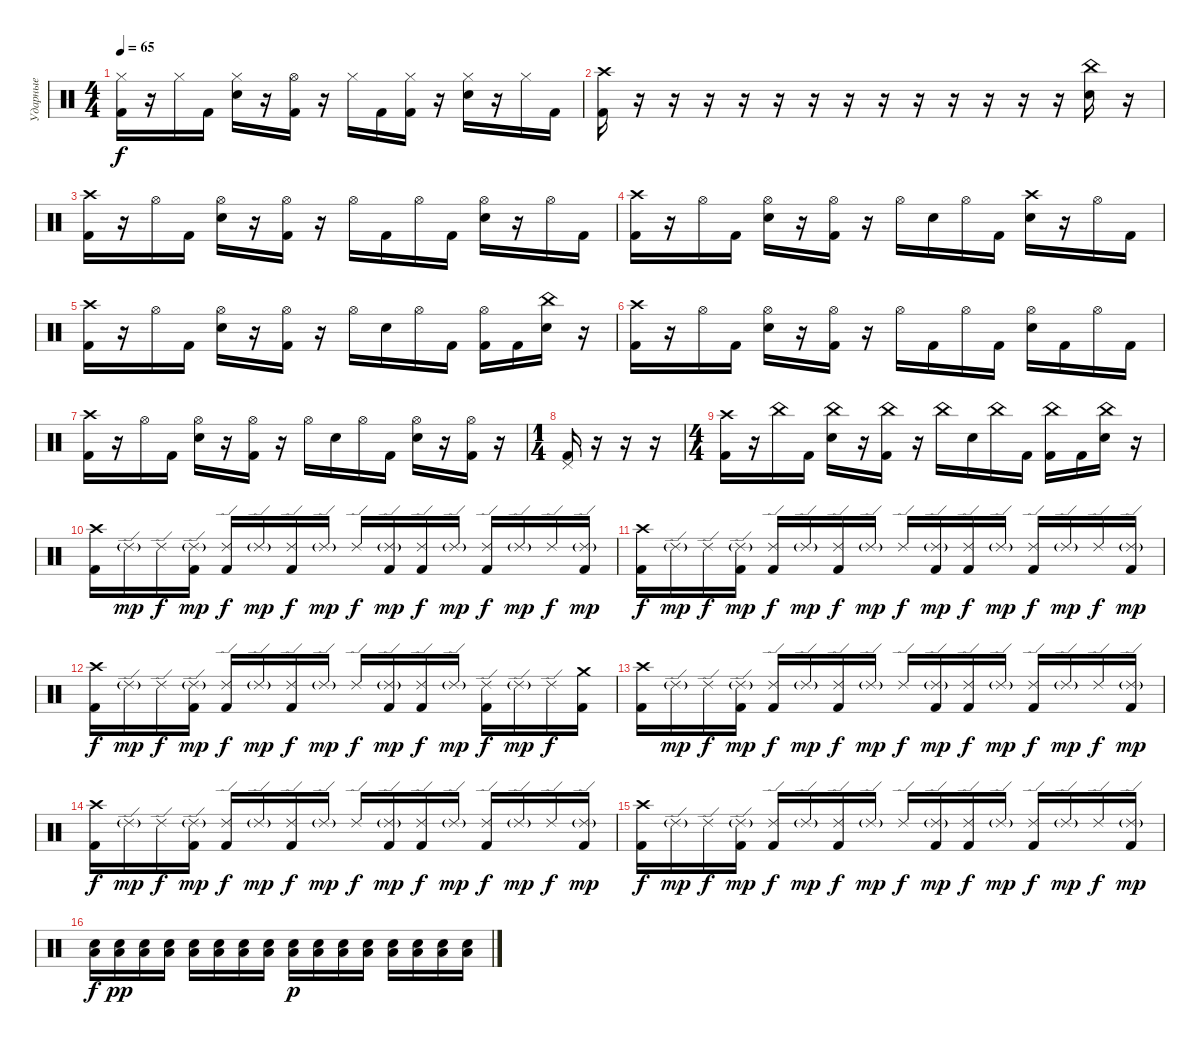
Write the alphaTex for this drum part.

\track ("Ударные" "Ударные") {instrument percussion}
\staff {score}
\articulation defaults
\ts (4 4)
\tempo 65
\clef neutral
\ks c
("Hi-Hat (closed)" "Kick (hit) 2").16{dy f} r.16 "Hi-Hat (closed)".16 "Kick (hit) 2".16 ("Hi-Hat (closed)" "Electric Snare (hit)").16 r.16 ("Hi-Hat (open)" "Kick (hit) 2").16 r.16 "Hi-Hat (closed)".16 "Kick (hit) 2".16 ("Hi-Hat (closed)" "Kick (hit) 2").16 r.16 ("Hi-Hat (closed)" "Electric Snare (hit)").16 r.16 "Hi-Hat (closed)".16 "Kick (hit) 2".16 |
("Crash high (hit)" "Kick (hit) 2").16 r.16 r.16 r.16 r.16 r.16 r.16 r.16 r.16 r.16 r.16 r.16 r.16 r.16 ("China (hit)" "Electric Snare (hit)").16 r.16 |
("Crash high (hit)" "Kick (hit) 2").16 r.16 "Hi-Hat (open)".16 "Kick (hit) 2".16 ("Hi-Hat (open)" "Electric Snare (hit)").16 r.16 ("Hi-Hat (open)" "Kick (hit) 2").16 r.16 "Hi-Hat (open)".16 "Kick (hit) 2".16 "Hi-Hat (open)".16 "Kick (hit) 2".16 ("Hi-Hat (open)" "Electric Snare (hit)").16 r.16 "Hi-Hat (open)".16 "Kick (hit) 2".16 |
("Crash high (hit)" "Kick (hit) 2").16 r.16 "Hi-Hat (open)".16 "Kick (hit) 2".16 ("Hi-Hat (open)" "Electric Snare (hit)").16 r.16 ("Hi-Hat (open)" "Kick (hit) 2").16 r.16 "Hi-Hat (open)".16 "Electric Snare (hit)".16 "Hi-Hat (open)".16 "Kick (hit) 2".16 ("Crash high (hit)" "Electric Snare (hit)").16 r.16 "Hi-Hat (open)".16 "Kick (hit) 2".16 |
("Crash high (hit)" "Kick (hit) 2").16 r.16 "Hi-Hat (open)".16 "Kick (hit) 2".16 ("Hi-Hat (open)" "Electric Snare (hit)").16 r.16 ("Hi-Hat (open)" "Kick (hit) 2").16 r.16 "Hi-Hat (open)".16 "Electric Snare (hit)".16 "Hi-Hat (open)".16 "Kick (hit) 2".16 ("Hi-Hat (open)" "Kick (hit) 2").16 "Kick (hit) 2".16 ("China (hit)" "Electric Snare (hit)").16 r.16 |
("Crash high (hit)" "Kick (hit) 2").16 r.16 "Hi-Hat (open)".16 "Kick (hit) 2".16 ("Hi-Hat (open)" "Electric Snare (hit)").16 r.16 ("Hi-Hat (open)" "Kick (hit) 2").16 r.16 "Hi-Hat (open)".16 "Kick (hit) 2".16 "Hi-Hat (open)".16 "Kick (hit) 2".16 ("Hi-Hat (open)" "Electric Snare (hit)").16 "Kick (hit) 2".16 "Hi-Hat (open)".16 "Kick (hit) 2".16 |
("Crash high (hit)" "Kick (hit) 2").16 r.16 "Hi-Hat (open)".16 "Kick (hit) 2".16 ("Hi-Hat (open)" "Electric Snare (hit)").16 r.16 ("Hi-Hat (open)" "Kick (hit) 2").16 r.16 "Hi-Hat (open)".16 "Electric Snare (hit)".16 "Hi-Hat (open)".16 "Kick (hit) 2".16 ("Hi-Hat (open)" "Electric Snare (hit)").16 r.16 ("Hi-Hat (open)" "Kick (hit) 2").16 r.16 |
\ts (1 4)
("Pedal Hi-Hat (hit)" "Kick (hit) 2").16 r.16 r.16 r.16 |
\ts (4 4)
("Crash high (hit)" "Kick (hit) 2").16 r.16 "China (hit)".16 "Kick (hit) 2".16 ("China (hit)" "Electric Snare (hit)").16 r.16 ("China (hit)" "Kick (hit) 2").16 r.16 "China (hit)".16 "Electric Snare (hit)".16 "China (hit)".16 "Kick (hit) 2".16 ("China (hit)" "Kick (hit) 2").16 "Kick (hit) 2".16 ("China (hit)" "Electric Snare (hit)").16 r.16 |
("Crash high (hit)" "Kick (hit) 2").16 "Ride (edge) 2"{g}.16{dy mp} "Ride (edge) 2".16{dy f} ("Ride (edge) 2"{g} "Kick (hit) 2").16{dy mp} ("Ride (edge) 2" "Kick (hit) 2").16{dy f} "Ride (edge) 2"{g}.16{dy mp} ("Ride (edge) 2" "Kick (hit) 2").16{dy f} "Ride (edge) 2"{g}.16{dy mp} "Ride (edge) 2".16{dy f} ("Ride (edge) 2"{g} "Kick (hit) 2").16{dy mp} ("Ride (edge) 2" "Kick (hit) 2").16{dy f} "Ride (edge) 2"{g}.16{dy mp} ("Ride (edge) 2" "Kick (hit) 2").16{dy f} "Ride (edge) 2"{g}.16{dy mp} "Ride (edge) 2".16{dy f} ("Ride (edge) 2"{g} "Kick (hit) 2").16{dy mp} |
("Crash high (hit)" "Kick (hit) 2").16{dy f} "Ride (edge) 2"{g}.16{dy mp} "Ride (edge) 2".16{dy f} ("Ride (edge) 2"{g} "Kick (hit) 2").16{dy mp} ("Ride (edge) 2" "Kick (hit) 2").16{dy f} "Ride (edge) 2"{g}.16{dy mp} ("Ride (edge) 2" "Kick (hit) 2").16{dy f} "Ride (edge) 2"{g}.16{dy mp} "Ride (edge) 2".16{dy f} ("Ride (edge) 2"{g} "Kick (hit) 2").16{dy mp} ("Ride (edge) 2" "Kick (hit) 2").16{dy f} "Ride (edge) 2"{g}.16{dy mp} ("Ride (edge) 2" "Kick (hit) 2").16{dy f} "Ride (edge) 2"{g}.16{dy mp} "Ride (edge) 2".16{dy f} ("Ride (edge) 2"{g} "Kick (hit) 2").16{dy mp} |
("Crash high (hit)" "Kick (hit) 2").16{dy f} "Ride (edge) 2"{g}.16{dy mp} "Ride (edge) 2".16{dy f} ("Ride (edge) 2"{g} "Kick (hit) 2").16{dy mp} ("Ride (edge) 2" "Kick (hit) 2").16{dy f} "Ride (edge) 2"{g}.16{dy mp} ("Ride (edge) 2" "Kick (hit) 2").16{dy f} "Ride (edge) 2"{g}.16{dy mp} "Ride (edge) 2".16{dy f} ("Ride (edge) 2"{g} "Kick (hit) 2").16{dy mp} ("Ride (edge) 2" "Kick (hit) 2").16{dy f} "Ride (edge) 2"{g}.16{dy mp} ("Ride (edge) 2" "Kick (hit) 2").16{dy f} "Ride (edge) 2"{g}.16{dy mp} "Ride (edge) 2".16{dy f} ("Crash medium (hit)" "Kick (hit) 2").16 |
("Crash high (hit)" "Kick (hit) 2").16 "Ride (edge) 2"{g}.16{dy mp} "Ride (edge) 2".16{dy f} ("Ride (edge) 2"{g} "Kick (hit) 2").16{dy mp} ("Ride (edge) 2" "Kick (hit) 2").16{dy f} "Ride (edge) 2"{g}.16{dy mp} ("Ride (edge) 2" "Kick (hit) 2").16{dy f} "Ride (edge) 2"{g}.16{dy mp} "Ride (edge) 2".16{dy f} ("Ride (edge) 2"{g} "Kick (hit) 2").16{dy mp} ("Ride (edge) 2" "Kick (hit) 2").16{dy f} "Ride (edge) 2"{g}.16{dy mp} ("Ride (edge) 2" "Kick (hit) 2").16{dy f} "Ride (edge) 2"{g}.16{dy mp} "Ride (edge) 2".16{dy f} ("Ride (edge) 2"{g} "Kick (hit) 2").16{dy mp} |
("Crash high (hit)" "Kick (hit) 2").16{dy f} "Ride (edge) 2"{g}.16{dy mp} "Ride (edge) 2".16{dy f} ("Ride (edge) 2"{g} "Kick (hit) 2").16{dy mp} ("Ride (edge) 2" "Kick (hit) 2").16{dy f} "Ride (edge) 2"{g}.16{dy mp} ("Ride (edge) 2" "Kick (hit) 2").16{dy f} "Ride (edge) 2"{g}.16{dy mp} "Ride (edge) 2".16{dy f} ("Ride (edge) 2"{g} "Kick (hit) 2").16{dy mp} ("Ride (edge) 2" "Kick (hit) 2").16{dy f} "Ride (edge) 2"{g}.16{dy mp} ("Ride (edge) 2" "Kick (hit) 2").16{dy f} "Ride (edge) 2"{g}.16{dy mp} "Ride (edge) 2".16{dy f} ("Ride (edge) 2"{g} "Kick (hit) 2").16{dy mp} |
("Crash high (hit)" "Kick (hit) 2").16{dy f} "Ride (edge) 2"{g}.16{dy mp} "Ride (edge) 2".16{dy f} ("Ride (edge) 2"{g} "Kick (hit) 2").16{dy mp} ("Ride (edge) 2" "Kick (hit) 2").16{dy f} "Ride (edge) 2"{g}.16{dy mp} ("Ride (edge) 2" "Kick (hit) 2").16{dy f} "Ride (edge) 2"{g}.16{dy mp} "Ride (edge) 2".16{dy f} ("Ride (edge) 2"{g} "Kick (hit) 2").16{dy mp} ("Ride (edge) 2" "Kick (hit) 2").16{dy f} "Ride (edge) 2"{g}.16{dy mp} ("Ride (edge) 2" "Kick (hit) 2").16{dy f} "Ride (edge) 2"{g}.16{dy mp} "Ride (edge) 2".16{dy f} ("Ride (edge) 2"{g} "Kick (hit) 2").16{dy mp} |
("Low Floor Tom (hit)" "Electric Snare (hit)").16{dy f} ("Low Floor Tom (hit)" "Electric Snare (hit)").16{dy pp} ("Low Floor Tom (hit)" "Electric Snare (hit)").16 ("Low Floor Tom (hit)" "Electric Snare (hit)").16 ("Low Floor Tom (hit)" "Electric Snare (hit)").16 ("Low Floor Tom (hit)" "Electric Snare (hit)").16 ("Low Floor Tom (hit)" "Electric Snare (hit)").16 ("Low Floor Tom (hit)" "Electric Snare (hit)").16 ("Low Floor Tom (hit)" "Electric Snare (hit)").16{dy p} ("Low Floor Tom (hit)" "Electric Snare (hit)").16 ("Low Floor Tom (hit)" "Electric Snare (hit)").16 ("Low Floor Tom (hit)" "Electric Snare (hit)").16 ("Low Floor Tom (hit)" "Electric Snare (hit)").16 ("Low Floor Tom (hit)" "Electric Snare (hit)").16 ("Low Floor Tom (hit)" "Electric Snare (hit)").16 ("Low Floor Tom (hit)" "Electric Snare (hit)").16
